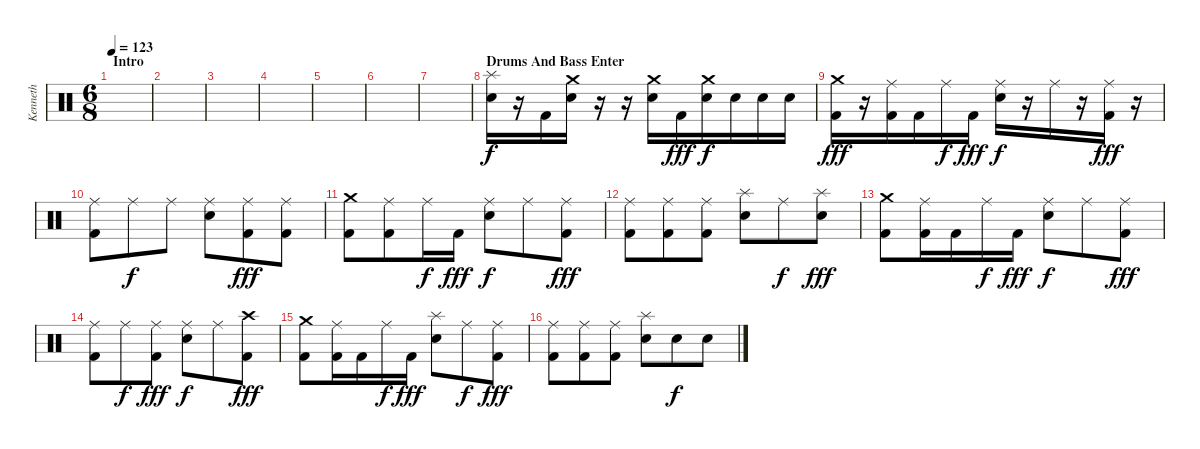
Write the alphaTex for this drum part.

\track ("Kenneth" "Kenneth") {instrument percussion}
\staff {score}
\articulation defaults
\ts (6 8)
\section ("" "Intro")
\tempo 123
\clef neutral
\ks c
|
|
|
|
|
|
|
\section ("" "Drums And Bass Enter")
("Splash (hit)" "Snare (hit) 2").16 r.16 "Kick (hit) 2".16 ("Crash medium (hit)" "Snare (hit) 2").16{dy f} r.16 r.16 ("Crash medium (hit)" "Snare (hit) 2").16 "Kick (hit) 2".16{dy fff} ("Crash medium (hit)" "Snare (hit) 2").16{dy f} "Snare (hit) 2".16 "Snare (hit) 2".16 "Snare (hit) 2".16 |
("Crash medium (hit)" "Kick (hit) 2").16{dy fff} r.16 ("Ride (middle)" "Kick (hit) 2").16 "Kick (hit) 2".16 "Ride (middle)".16{dy f} "Kick (hit) 2".16{dy fff} ("Ride (middle)" "Snare (hit) 2").16{dy f} r.16 "Ride (middle)".16 r.16 ("Ride (middle)" "Kick (hit) 2").16{dy fff} r.16 |
("Ride (middle)" "Kick (hit) 2").8 "Ride (middle)".8{dy f} "Ride (middle)".8 ("Ride (middle)" "Snare (hit) 2").8 ("Ride (middle)" "Kick (hit) 2").8{dy fff} ("Ride (middle)" "Kick (hit) 2").8 |
("Crash medium (hit)" "Kick (hit) 2").8 ("Ride (middle)" "Kick (hit) 2").8 "Ride (middle)".16{dy f} "Kick (hit) 2".16{dy fff} ("Ride (middle)" "Snare (hit) 2").8{dy f} "Ride (middle)".8 ("Ride (middle)" "Kick (hit) 2").8{dy fff} |
("Ride (middle)" "Kick (hit) 2").8 ("Ride (middle)" "Kick (hit) 2").8 ("Ride (middle)" "Kick (hit) 2").8 ("Splash (hit)" "Snare (hit) 2").8 "Ride (middle)".8{dy f} ("Splash (hit)" "Snare (hit) 2").8{dy fff} |
("Crash medium (hit)" "Kick (hit) 2").8 ("Ride (middle)" "Kick (hit) 2").16 "Kick (hit) 2".16 "Ride (middle)".16{dy f} "Kick (hit) 2".16{dy fff} ("Ride (middle)" "Snare (hit) 2").8{dy f} "Ride (middle)".8 ("Ride (middle)" "Kick (hit) 2").8{dy fff} |
("Ride (middle)" "Kick (hit) 2").8 "Ride (middle)".8{dy f} ("Ride (middle)" "Kick (hit) 2").8{dy fff} ("Ride (middle)" "Snare (hit) 2").8{dy f} "Ride (middle)".8 ("Crash high (hit)" "Kick (hit) 2").8{dy fff} |
("Crash medium (hit)" "Kick (hit) 2").8 ("Ride (middle)" "Kick (hit) 2").16 "Kick (hit) 2".16 "Ride (middle)".16{dy f} "Kick (hit) 2".16{dy fff} ("Splash (hit)" "Snare (hit) 2").8 "Ride (middle)".8{dy f} ("Ride (middle)" "Kick (hit) 2").8{dy fff} |
("Ride (middle)" "Kick (hit) 2").8 ("Ride (middle)" "Kick (hit) 2").8 ("Ride (middle)" "Kick (hit) 2").8 ("Splash (hit)" "Snare (hit) 2").8 "Snare (hit) 2".8{dy f} "Snare (hit) 2".8
